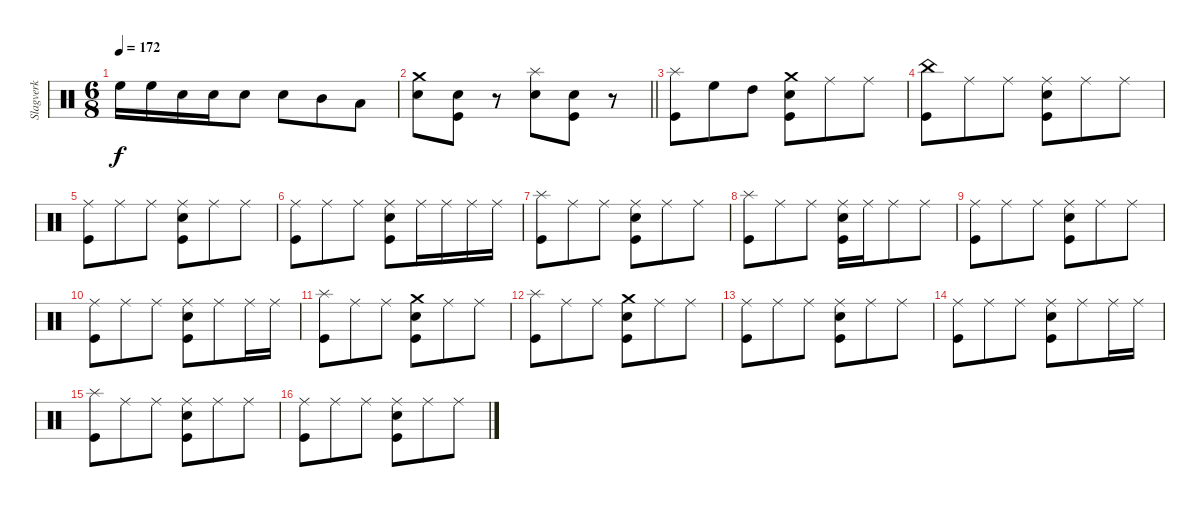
\track ("Slagverk" "Slagverk") {instrument percussion}
\staff {score}
\articulation defaults
\ts (6 8)
\tempo 172
\clef neutral
\ks c "High Floor Tom (hit)".16{dy f} "High Floor Tom (hit)".16 "Snare (hit) 2".16 "Snare (hit) 2".16 "Snare (hit) 2".8 "Snare (hit) 2".8 "Mid Tom (hit)".8 "Low Tom (hit)".8
|
\barLineRight lightlight
("Crash medium (hit)" "Snare (hit) 2").8 ("Snare (hit) 2" "Kick (hit)").8 r.8 ("Splash (hit)" "Snare (hit) 2").8 ("Snare (hit) 2" "Kick (hit)").8 r.8 |
("Splash (hit)" "Kick (hit)").8 "High Floor Tom (hit)".8 "High Tom (hit)".8 ("Crash medium (hit)" "Snare (hit) 2" "Kick (hit)").8 "Ride (middle)".8 "Ride (middle)".8 |
("China (hit)" "Kick (hit)").8 "Ride (middle)".8 "Ride (middle)".8 ("Ride (middle)" "Snare (hit) 2" "Kick (hit)").8 "Ride (middle)".8 "Ride (middle)".8 |
("Ride (middle)" "Kick (hit)").8 "Ride (middle)".8 "Ride (middle)".8 ("Ride (middle)" "Snare (hit) 2" "Kick (hit)").8 "Ride (middle)".8 "Ride (middle)".8 |
("Ride (middle)" "Kick (hit)").8 "Ride (middle)".8 "Ride (middle)".8 ("Ride (middle)" "Snare (hit) 2" "Kick (hit)").8 "Ride (middle)".16 "Ride (middle)".16 "Ride (middle)".16 "Ride (middle)".16 |
("Splash (hit)" "Kick (hit)").8 "Ride (middle)".8 "Ride (middle)".8 ("Ride (middle)" "Snare (hit) 2" "Kick (hit)").8 "Ride (middle)".8 "Ride (middle)".8 |
("Splash (hit)" "Kick (hit)").8 "Ride (middle)".8 "Ride (middle)".8 ("Ride (middle)" "Snare (hit) 2" "Kick (hit)").16 "Ride (middle)".16 "Ride (middle)".8 "Ride (middle)".8 |
("Ride (middle)" "Kick (hit)").8 "Ride (middle)".8 "Ride (middle)".8 ("Ride (middle)" "Snare (hit) 2" "Kick (hit)").8 "Ride (middle)".8 "Ride (middle)".8 |
("Ride (middle)" "Kick (hit)").8 "Ride (middle)".8 "Ride (middle)".8 ("Ride (middle)" "Snare (hit) 2" "Kick (hit)").8 "Ride (middle)".8 "Ride (middle)".16 "Ride (middle)".16 |
("Splash (hit)" "Kick (hit)").8 "Ride (middle)".8 "Ride (middle)".8 ("Crash medium (hit)" "Snare (hit) 2" "Kick (hit)").8 "Ride (middle)".8 "Ride (middle)".8 |
("Splash (hit)" "Kick (hit)").8 "Ride (middle)".8 "Ride (middle)".8 ("Crash medium (hit)" "Snare (hit) 2" "Kick (hit)").8 "Ride (middle)".8 "Ride (middle)".8 |
("Ride (middle)" "Kick (hit)").8 "Ride (middle)".8 "Ride (middle)".8 ("Ride (middle)" "Snare (hit) 2" "Kick (hit)").8 "Ride (middle)".8 "Ride (middle)".8 |
("Ride (middle)" "Kick (hit)").8 "Ride (middle)".8 "Ride (middle)".8 ("Ride (middle)" "Snare (hit) 2" "Kick (hit)").8 "Ride (middle)".8 "Ride (middle)".16 "Ride (middle)".16 |
("Splash (hit)" "Kick (hit)").8 "Ride (middle)".8 "Ride (middle)".8 ("Ride (middle)" "Snare (hit) 2" "Kick (hit)").8 "Ride (middle)".8 "Ride (middle)".8 |
("Ride (middle)" "Kick (hit)").8 "Ride (middle)".8 "Ride (middle)".8 ("Ride (middle)" "Snare (hit) 2" "Kick (hit)").8 "Ride (middle)".8 "Ride (middle)".8
